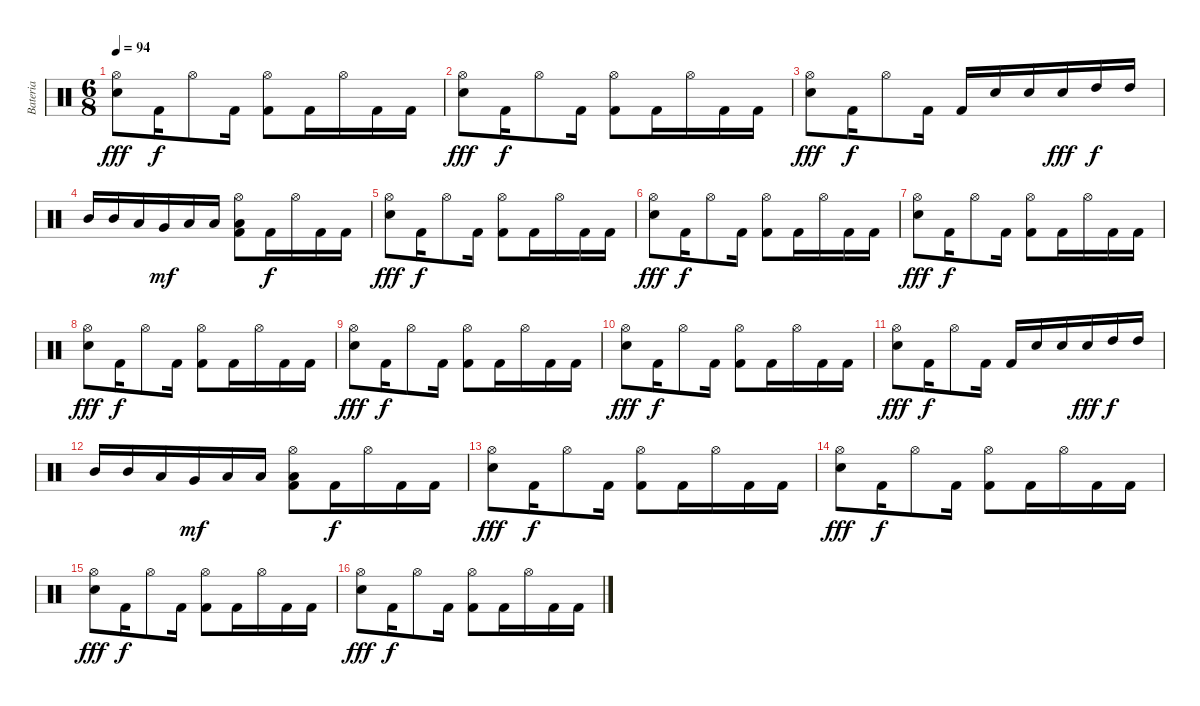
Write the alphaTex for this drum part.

\track ("Bateria" "Bateria") {instrument percussion}
\staff {score}
\articulation defaults
\ts (6 8)
\tempo 94
\clef neutral
\ks c
("Hi-Hat (open)" "Electric Snare (hit)").8{dy fff} "Kick (hit) 2".16{dy f} "Hi-Hat (open)".8 "Kick (hit) 2".16 ("Hi-Hat (open)" "Kick (hit) 2").8 "Kick (hit) 2".16 "Hi-Hat (open)".16 "Kick (hit) 2".16 "Kick (hit) 2".16 |
("Hi-Hat (open)" "Electric Snare (hit)").8{dy fff} "Kick (hit) 2".16{dy f} "Hi-Hat (open)".8 "Kick (hit) 2".16 ("Hi-Hat (open)" "Kick (hit) 2").8 "Kick (hit) 2".16 "Hi-Hat (open)".16 "Kick (hit) 2".16 "Kick (hit) 2".16 |
("Hi-Hat (open)" "Electric Snare (hit)").8{dy fff} "Kick (hit) 2".16{dy f} "Hi-Hat (open)".8 "Kick (hit) 2".16 "Kick (hit) 2".16 "Electric Snare (hit)".16 "Electric Snare (hit)".16 "Electric Snare (hit)".16{dy fff} "High Tom (hit)".16{dy f} "High Tom (hit)".16 |
"Mid Tom (hit)".16 "Mid Tom (hit)".16 "Low Tom (hit)".16 "Very Low Tom (hit)".16{dy mf} "Low Floor Tom (hit)".16 "Low Floor Tom (hit)".16 ("Hi-Hat (open)" "Low Floor Tom (hit)" "Kick (hit) 2").8 "Kick (hit) 2".16{dy f} "Hi-Hat (open)".16 "Kick (hit) 2".16 "Kick (hit) 2".16 |
("Hi-Hat (open)" "Electric Snare (hit)").8{dy fff} "Kick (hit) 2".16{dy f} "Hi-Hat (open)".8 "Kick (hit) 2".16 ("Hi-Hat (open)" "Kick (hit) 2").8 "Kick (hit) 2".16 "Hi-Hat (open)".16 "Kick (hit) 2".16 "Kick (hit) 2".16 |
("Hi-Hat (open)" "Electric Snare (hit)").8{dy fff} "Kick (hit) 2".16{dy f} "Hi-Hat (open)".8 "Kick (hit) 2".16 ("Hi-Hat (open)" "Kick (hit) 2").8 "Kick (hit) 2".16 "Hi-Hat (open)".16 "Kick (hit) 2".16 "Kick (hit) 2".16 |
("Hi-Hat (open)" "Electric Snare (hit)").8{dy fff} "Kick (hit) 2".16{dy f} "Hi-Hat (open)".8 "Kick (hit) 2".16 ("Hi-Hat (open)" "Kick (hit) 2").8 "Kick (hit) 2".16 "Hi-Hat (open)".16 "Kick (hit) 2".16 "Kick (hit) 2".16 |
("Hi-Hat (open)" "Electric Snare (hit)").8{dy fff} "Kick (hit) 2".16{dy f} "Hi-Hat (open)".8 "Kick (hit) 2".16 ("Hi-Hat (open)" "Kick (hit) 2").8 "Kick (hit) 2".16 "Hi-Hat (open)".16 "Kick (hit) 2".16 "Kick (hit) 2".16 |
("Hi-Hat (open)" "Electric Snare (hit)").8{dy fff} "Kick (hit) 2".16{dy f} "Hi-Hat (open)".8 "Kick (hit) 2".16 ("Hi-Hat (open)" "Kick (hit) 2").8 "Kick (hit) 2".16 "Hi-Hat (open)".16 "Kick (hit) 2".16 "Kick (hit) 2".16 |
("Hi-Hat (open)" "Electric Snare (hit)").8{dy fff} "Kick (hit) 2".16{dy f} "Hi-Hat (open)".8 "Kick (hit) 2".16 ("Hi-Hat (open)" "Kick (hit) 2").8 "Kick (hit) 2".16 "Hi-Hat (open)".16 "Kick (hit) 2".16 "Kick (hit) 2".16 |
("Hi-Hat (open)" "Electric Snare (hit)").8{dy fff} "Kick (hit) 2".16{dy f} "Hi-Hat (open)".8 "Kick (hit) 2".16 "Kick (hit) 2".16 "Electric Snare (hit)".16 "Electric Snare (hit)".16 "Electric Snare (hit)".16{dy fff} "High Tom (hit)".16{dy f} "High Tom (hit)".16 |
"Mid Tom (hit)".16 "Mid Tom (hit)".16 "Low Tom (hit)".16 "Very Low Tom (hit)".16{dy mf} "Low Floor Tom (hit)".16 "Low Floor Tom (hit)".16 ("Hi-Hat (open)" "Low Floor Tom (hit)" "Kick (hit) 2").8 "Kick (hit) 2".16{dy f} "Hi-Hat (open)".16 "Kick (hit) 2".16 "Kick (hit) 2".16 |
("Hi-Hat (open)" "Electric Snare (hit)").8{dy fff} "Kick (hit) 2".16{dy f} "Hi-Hat (open)".8 "Kick (hit) 2".16 ("Hi-Hat (open)" "Kick (hit) 2").8 "Kick (hit) 2".16 "Hi-Hat (open)".16 "Kick (hit) 2".16 "Kick (hit) 2".16 |
("Hi-Hat (open)" "Electric Snare (hit)").8{dy fff} "Kick (hit) 2".16{dy f} "Hi-Hat (open)".8 "Kick (hit) 2".16 ("Hi-Hat (open)" "Kick (hit) 2").8 "Kick (hit) 2".16 "Hi-Hat (open)".16 "Kick (hit) 2".16 "Kick (hit) 2".16 |
("Hi-Hat (open)" "Electric Snare (hit)").8{dy fff} "Kick (hit) 2".16{dy f} "Hi-Hat (open)".8 "Kick (hit) 2".16 ("Hi-Hat (open)" "Kick (hit) 2").8 "Kick (hit) 2".16 "Hi-Hat (open)".16 "Kick (hit) 2".16 "Kick (hit) 2".16 |
("Hi-Hat (open)" "Electric Snare (hit)").8{dy fff} "Kick (hit) 2".16{dy f} "Hi-Hat (open)".8 "Kick (hit) 2".16 ("Hi-Hat (open)" "Kick (hit) 2").8 "Kick (hit) 2".16 "Hi-Hat (open)".16 "Kick (hit) 2".16 "Kick (hit) 2".16
